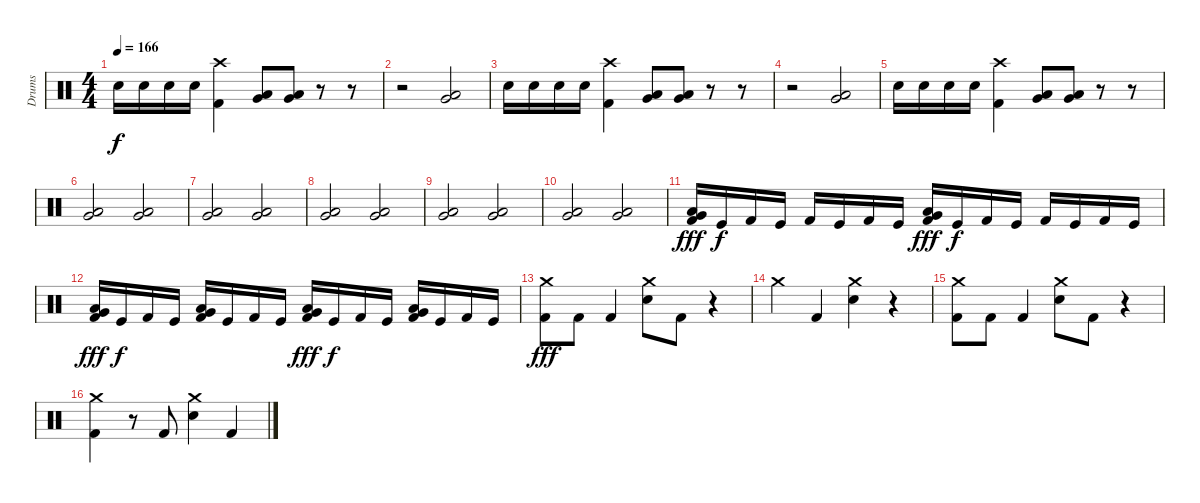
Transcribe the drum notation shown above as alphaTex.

\track ("Drums" "Drums") {instrument percussion}
\staff {score}
\articulation defaults
\ts (4 4)
\tempo 166
\clef neutral
\ks c "Snare (hit) 2".16{dy f} "Snare (hit) 2".16 "Snare (hit) 2".16 "Snare (hit) 2".16
("Crash high (hit)" "Kick (hit) 2").4 ("Very Low Tom (hit)" "Low Floor Tom (hit)").8 ("Very Low Tom (hit)" "Low Floor Tom (hit)").8 r.8 r.8 |
r.2 ("Very Low Tom (hit)" "Low Floor Tom (hit)").2 |
"Snare (hit) 2".16 "Snare (hit) 2".16 "Snare (hit) 2".16 "Snare (hit) 2".16 ("Crash high (hit)" "Kick (hit) 2").4 ("Very Low Tom (hit)" "Low Floor Tom (hit)").8 ("Very Low Tom (hit)" "Low Floor Tom (hit)").8 r.8 r.8 |
r.2 ("Very Low Tom (hit)" "Low Floor Tom (hit)").2 |
"Snare (hit) 2".16 "Snare (hit) 2".16 "Snare (hit) 2".16 "Snare (hit) 2".16 ("Crash high (hit)" "Kick (hit) 2").4 ("Very Low Tom (hit)" "Low Floor Tom (hit)").8 ("Very Low Tom (hit)" "Low Floor Tom (hit)").8 r.8 r.8 |
("Very Low Tom (hit)" "Low Floor Tom (hit)").2 ("Very Low Tom (hit)" "Low Floor Tom (hit)").2 |
("Very Low Tom (hit)" "Low Floor Tom (hit)").2 ("Very Low Tom (hit)" "Low Floor Tom (hit)").2 |
("Very Low Tom (hit)" "Low Floor Tom (hit)").2 ("Very Low Tom (hit)" "Low Floor Tom (hit)").2 |
("Very Low Tom (hit)" "Low Floor Tom (hit)").2 ("Very Low Tom (hit)" "Low Floor Tom (hit)").2 |
("Very Low Tom (hit)" "Low Floor Tom (hit)").2 ("Very Low Tom (hit)" "Low Floor Tom (hit)").2 |
("Very Low Tom (hit)" "Low Floor Tom (hit)" "Kick (hit) 2").16{dy fff} "Kick (hit)".16{dy f} "Kick (hit) 2".16 "Kick (hit)".16 "Kick (hit) 2".16 "Kick (hit)".16 "Kick (hit) 2".16 "Kick (hit)".16 ("Very Low Tom (hit)" "Low Floor Tom (hit)" "Kick (hit) 2").16{dy fff} "Kick (hit)".16{dy f} "Kick (hit) 2".16 "Kick (hit)".16 "Kick (hit) 2".16 "Kick (hit)".16 "Kick (hit) 2".16 "Kick (hit)".16 |
("Very Low Tom (hit)" "Low Floor Tom (hit)" "Kick (hit) 2").16{dy fff} "Kick (hit)".16{dy f} "Kick (hit) 2".16 "Kick (hit)".16 ("Very Low Tom (hit)" "Low Floor Tom (hit)" "Kick (hit) 2").16 "Kick (hit)".16 "Kick (hit) 2".16 "Kick (hit)".16 ("Very Low Tom (hit)" "Low Floor Tom (hit)" "Kick (hit) 2").16{dy fff} "Kick (hit)".16{dy f} "Kick (hit) 2".16 "Kick (hit)".16 ("Very Low Tom (hit)" "Low Floor Tom (hit)" "Kick (hit) 2").16 "Kick (hit)".16 "Kick (hit) 2".16 "Kick (hit)".16 |
("Crash medium (hit)" "Kick (hit) 2").8{dy fff} "Kick (hit) 2".8 "Kick (hit) 2".4 ("Crash medium (hit)" "Snare (hit) 2").8 "Kick (hit) 2".8 r.4 |
"Crash medium (hit)".4 "Kick (hit) 2".4 ("Crash medium (hit)" "Snare (hit) 2").4 r.4 |
("Crash medium (hit)" "Kick (hit) 2").8 "Kick (hit) 2".8 "Kick (hit) 2".4 ("Crash medium (hit)" "Snare (hit) 2").8 "Kick (hit) 2".8 r.4 |
("Crash medium (hit)" "Kick (hit) 2").4 r.8 "Kick (hit) 2".8 ("Crash medium (hit)" "Snare (hit) 2").4 "Kick (hit) 2".4
